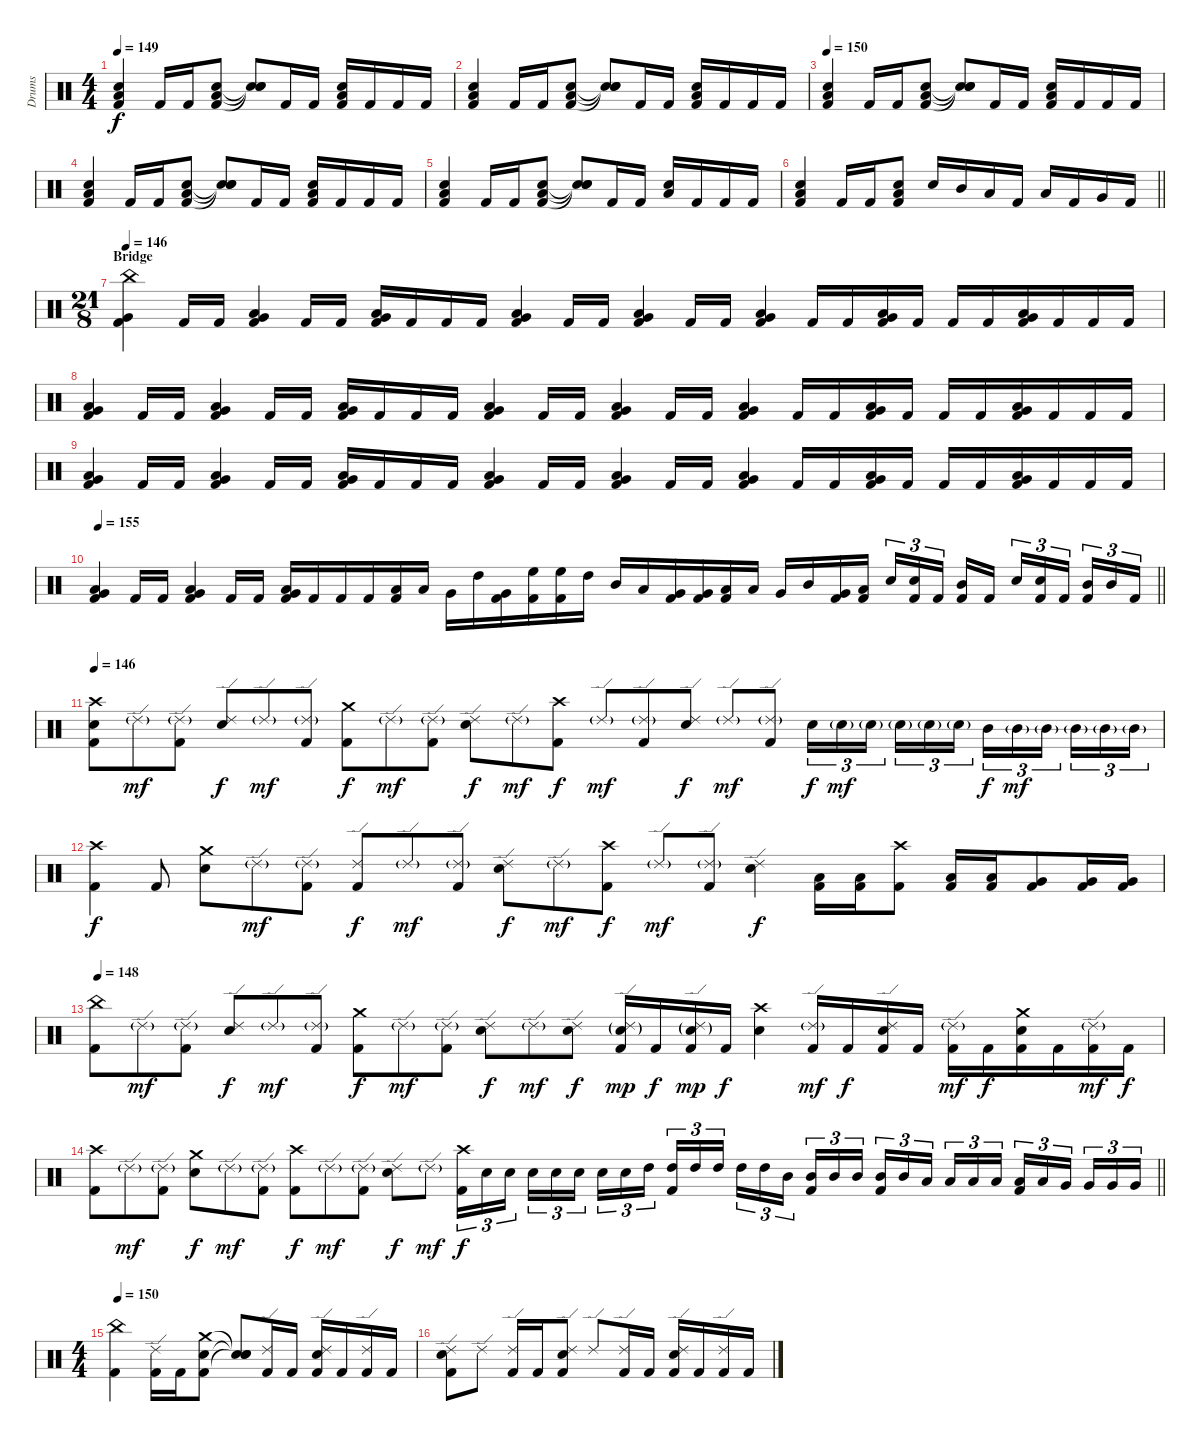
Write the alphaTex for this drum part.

\track ("Drums" "Drums") {instrument percussion}
\staff {score}
\articulation defaults
\ts (4 4)
\tempo 149
\clef neutral
\ks c
("Snare (hit) 2" "Low Tom (hit)" "Kick (hit) 2").4{dy f} "Kick (hit) 2".16 "Kick (hit) 2".16 ("Snare (hit) 2" "Low Tom (hit)" "Kick (hit) 2").8 ("Snare (hit)"{t} "Snare (hit)"{t} "Snare (hit)"{t}).8 "Kick (hit) 2".16 "Kick (hit) 2".16 ("Snare (hit) 2" "Low Tom (hit)" "Kick (hit) 2").16 "Kick (hit) 2".16 "Kick (hit) 2".16 "Kick (hit) 2".16 |
("Snare (hit) 2" "Low Tom (hit)" "Kick (hit) 2").4 "Kick (hit) 2".16 "Kick (hit) 2".16 ("Snare (hit) 2" "Low Tom (hit)" "Kick (hit) 2").8 ("Snare (hit)"{t} "Snare (hit)"{t} "Snare (hit)"{t}).8 "Kick (hit) 2".16 "Kick (hit) 2".16 ("Snare (hit) 2" "Low Tom (hit)" "Kick (hit) 2").16 "Kick (hit) 2".16 "Kick (hit) 2".16 "Kick (hit) 2".16 |
\tempo 150
("Snare (hit) 2" "Low Tom (hit)" "Kick (hit) 2").4 "Kick (hit) 2".16 "Kick (hit) 2".16 ("Snare (hit) 2" "Low Tom (hit)" "Kick (hit) 2").8 ("Snare (hit)"{t} "Snare (hit)"{t} "Snare (hit)"{t}).8 "Kick (hit) 2".16 "Kick (hit) 2".16 ("Snare (hit) 2" "Low Tom (hit)" "Kick (hit) 2").16 "Kick (hit) 2".16 "Kick (hit) 2".16 "Kick (hit) 2".16 |
("Snare (hit) 2" "Low Tom (hit)" "Kick (hit) 2").4 "Kick (hit) 2".16 "Kick (hit) 2".16 ("Snare (hit) 2" "Low Tom (hit)" "Kick (hit) 2").8 ("Snare (hit)"{t} "Snare (hit)"{t} "Snare (hit)"{t}).8 "Kick (hit) 2".16 "Kick (hit) 2".16 ("Snare (hit) 2" "Low Tom (hit)" "Kick (hit) 2").16 "Kick (hit) 2".16 "Kick (hit) 2".16 "Kick (hit) 2".16 |
("Snare (hit) 2" "Low Tom (hit)" "Kick (hit) 2").4 "Kick (hit) 2".16 "Kick (hit) 2".16 ("Snare (hit) 2" "Low Tom (hit)" "Kick (hit) 2").8 ("Snare (hit)"{t} "Snare (hit)"{t} "Snare (hit)"{t}).8 "Kick (hit) 2".16 "Kick (hit) 2".16 ("Snare (hit) 2" "Low Tom (hit)").16 "Kick (hit) 2".16 "Kick (hit) 2".16 "Kick (hit) 2".16 |
\barLineRight lightlight
("Snare (hit) 2" "Low Tom (hit)" "Kick (hit) 2").4 "Kick (hit) 2".16 "Kick (hit) 2".16 ("Snare (hit) 2" "Low Tom (hit)" "Kick (hit) 2").8 "Snare (hit) 2".16 "Mid Tom (hit)".16 "Low Tom (hit)".16 "Kick (hit) 2".16 "Low Tom (hit)".16 "Kick (hit) 2".16 "Very Low Tom (hit)".16 "Kick (hit) 2".16 |
\ts (21 8)
\section ("" "Bridge")
\tempo 146
("China (hit)" "Very Low Tom (hit)" "Kick (hit) 2").4 "Kick (hit) 2".16 "Kick (hit) 2".16 ("Low Tom (hit)" "Very Low Tom (hit)" "Kick (hit) 2").4 "Kick (hit) 2".16 "Kick (hit) 2".16 ("Low Tom (hit)" "Very Low Tom (hit)" "Kick (hit) 2").16 "Kick (hit) 2".16 "Kick (hit) 2".16 "Kick (hit) 2".16 ("Low Tom (hit)" "Very Low Tom (hit)" "Kick (hit) 2").4 "Kick (hit) 2".16 "Kick (hit) 2".16 ("Low Tom (hit)" "Very Low Tom (hit)" "Kick (hit) 2").4 "Kick (hit) 2".16 "Kick (hit) 2".16 ("Low Tom (hit)" "Very Low Tom (hit)" "Kick (hit) 2").4 "Kick (hit) 2".16 "Kick (hit) 2".16 ("Low Tom (hit)" "Very Low Tom (hit)" "Kick (hit) 2").16 "Kick (hit) 2".16 "Kick (hit) 2".16 "Kick (hit) 2".16 ("Low Tom (hit)" "Very Low Tom (hit)" "Kick (hit) 2").16 "Kick (hit) 2".16 "Kick (hit) 2".16 "Kick (hit) 2".16 |
("Low Tom (hit)" "Very Low Tom (hit)" "Kick (hit) 2").4 "Kick (hit) 2".16 "Kick (hit) 2".16 ("Low Tom (hit)" "Very Low Tom (hit)" "Kick (hit) 2").4 "Kick (hit) 2".16 "Kick (hit) 2".16 ("Low Tom (hit)" "Very Low Tom (hit)" "Kick (hit) 2").16 "Kick (hit) 2".16 "Kick (hit) 2".16 "Kick (hit) 2".16 ("Low Tom (hit)" "Very Low Tom (hit)" "Kick (hit) 2").4 "Kick (hit) 2".16 "Kick (hit) 2".16 ("Low Tom (hit)" "Very Low Tom (hit)" "Kick (hit) 2").4 "Kick (hit) 2".16 "Kick (hit) 2".16 ("Low Tom (hit)" "Very Low Tom (hit)" "Kick (hit) 2").4 "Kick (hit) 2".16 "Kick (hit) 2".16 ("Low Tom (hit)" "Very Low Tom (hit)" "Kick (hit) 2").16 "Kick (hit) 2".16 "Kick (hit) 2".16 "Kick (hit) 2".16 ("Low Tom (hit)" "Very Low Tom (hit)" "Kick (hit) 2").16 "Kick (hit) 2".16 "Kick (hit) 2".16 "Kick (hit) 2".16 |
("Low Tom (hit)" "Very Low Tom (hit)" "Kick (hit) 2").4 "Kick (hit) 2".16 "Kick (hit) 2".16 ("Low Tom (hit)" "Very Low Tom (hit)" "Kick (hit) 2").4 "Kick (hit) 2".16 "Kick (hit) 2".16 ("Low Tom (hit)" "Very Low Tom (hit)" "Kick (hit) 2").16 "Kick (hit) 2".16 "Kick (hit) 2".16 "Kick (hit) 2".16 ("Low Tom (hit)" "Very Low Tom (hit)" "Kick (hit) 2").4 "Kick (hit) 2".16 "Kick (hit) 2".16 ("Low Tom (hit)" "Very Low Tom (hit)" "Kick (hit) 2").4 "Kick (hit) 2".16 "Kick (hit) 2".16 ("Low Tom (hit)" "Very Low Tom (hit)" "Kick (hit) 2").4 "Kick (hit) 2".16 "Kick (hit) 2".16 ("Low Tom (hit)" "Very Low Tom (hit)" "Kick (hit) 2").16 "Kick (hit) 2".16 "Kick (hit) 2".16 "Kick (hit) 2".16 ("Low Tom (hit)" "Very Low Tom (hit)" "Kick (hit) 2").16 "Kick (hit) 2".16 "Kick (hit) 2".16 "Kick (hit) 2".16 |
\tempo 155
\barLineRight lightlight
("Low Tom (hit)" "Very Low Tom (hit)" "Kick (hit) 2").4 "Kick (hit) 2".16 "Kick (hit) 2".16 ("Low Tom (hit)" "Very Low Tom (hit)" "Kick (hit) 2").4 "Kick (hit) 2".16 "Kick (hit) 2".16 ("Low Tom (hit)" "Very Low Tom (hit)" "Kick (hit) 2").16 "Kick (hit) 2".16 "Kick (hit) 2".16 "Kick (hit) 2".16 ("Low Tom (hit)" "Kick (hit) 2").16 "Low Tom (hit)".16 "Very Low Tom (hit)".16 "High Tom (hit)".16 ("Very Low Tom (hit)" "Kick (hit) 2").16 ("High Floor Tom (hit)" "Kick (hit) 2").16 ("High Floor Tom (hit)" "Kick (hit) 2").16 "High Tom (hit)".16 "Mid Tom (hit)".16 "Low Tom (hit)".16 ("Very Low Tom (hit)" "Kick (hit) 2").16 ("Very Low Tom (hit)" "Kick (hit) 2").16 ("Low Floor Tom (hit)" "Kick (hit) 2").16 "Low Floor Tom (hit)".16 "Very Low Tom (hit)".16 "Mid Tom (hit)".16 ("Very Low Tom (hit)" "Kick (hit) 2").16 ("Low Tom (hit)" "Kick (hit) 2").16{beam splitsecondary} "Snare (hit) 2".16{tu (3 2)} ("Snare (hit) 2" "Kick (hit) 2").16{tu (3 2)} "Kick (hit) 2".16{tu (3 2)} ("Mid Tom (hit)" "Kick (hit) 2").16 "Kick (hit) 2".16{beam splitsecondary} "Snare (hit) 2".16{tu (3 2)} ("Snare (hit) 2" "Kick (hit) 2").16{tu (3 2)} "Kick (hit) 2".16{tu (3 2) beam splitsecondary} ("Mid Tom (hit)" "Kick (hit) 2").16{tu (3 2)} "Mid Tom (hit)".16{tu (3 2)} "Kick (hit) 2".16{tu (3 2)} |
\section ("" "")
\tempo 146
("Crash high (hit)" "Snare (hit) 2" "Kick (hit) 2").8 "Ride (edge) 2"{g}.8{dy mf} ("Ride (edge) 2"{g} "Kick (hit) 2").8 ("Ride (edge) 2" "Snare (hit) 2").8{dy f} "Ride (edge) 2"{g}.8{dy mf} ("Ride (edge) 2"{g} "Kick (hit) 2").8 ("Crash medium (hit)" "Kick (hit) 2").8{dy f} "Ride (edge) 2"{g}.8{dy mf} ("Ride (edge) 2"{g} "Kick (hit) 2").8 ("Ride (edge) 2" "Snare (hit) 2").8{dy f} "Ride (edge) 2"{g}.8{dy mf} ("Crash high (hit)" "Kick (hit) 2").8{dy f} "Ride (edge) 2"{g}.8{dy mf} ("Ride (edge) 2"{g} "Kick (hit) 2").8 ("Ride (edge) 2" "Snare (hit) 2").8{dy f} "Ride (edge) 2"{g}.8{dy mf} ("Ride (edge) 2"{g} "Kick (hit) 2").8 "Snare (hit) 2".16{tu (3 2) dy f} "Snare (hit) 2"{g}.16{tu (3 2) dy mf} "Snare (hit) 2"{g}.16{tu (3 2)} "Snare (hit) 2"{g}.16{tu (3 2)} "Snare (hit) 2"{g}.16{tu (3 2)} "Snare (hit) 2"{g}.16{tu (3 2) beam splitsecondary} "Mid Tom (hit)".16{tu (3 2) dy f} "Mid Tom (hit)"{g}.16{tu (3 2) dy mf} "Mid Tom (hit)"{g}.16{tu (3 2) beam splitsecondary} "Mid Tom (hit)"{g}.16{tu (3 2)} "Mid Tom (hit)"{g}.16{tu (3 2)} "Mid Tom (hit)"{g}.16{tu (3 2)} |
("Crash high (hit)" "Kick (hit) 2").4{dy f} "Kick (hit) 2".8 ("Crash medium (hit)" "Snare (hit) 2").8 "Ride (edge) 2"{g}.8{dy mf} ("Ride (edge) 2"{g} "Kick (hit) 2").8 ("Ride (edge) 2" "Kick (hit) 2").8{dy f} "Ride (edge) 2"{g}.8{dy mf} ("Ride (edge) 2"{g} "Kick (hit) 2").8 ("Ride (edge) 2" "Snare (hit) 2").8{dy f} "Ride (edge) 2"{g}.8{dy mf} ("Crash high (hit)" "Kick (hit) 2").8{dy f} "Ride (edge) 2"{g}.8{dy mf} ("Ride (edge) 2"{g} "Kick (hit) 2").8 ("Ride (edge) 2" "Snare (hit) 2").4{dy f} ("Low Tom (hit)" "Kick (hit) 2").16 ("Low Tom (hit)" "Kick (hit) 2").16 ("Crash high (hit)" "Kick (hit) 2").8 ("Low Tom (hit)" "Kick (hit) 2").16 ("Low Tom (hit)" "Kick (hit) 2").16 ("Very Low Tom (hit)" "Kick (hit) 2").8 ("Very Low Tom (hit)" "Kick (hit) 2").16 ("Very Low Tom (hit)" "Kick (hit) 2").16 |
\tempo 148
("China (hit)" "Kick (hit) 2").8 "Ride (edge) 2"{g}.8{dy mf} ("Ride (edge) 2"{g} "Kick (hit) 2").8 ("Ride (edge) 2" "Snare (hit) 2").8{dy f} "Ride (edge) 2"{g}.8{dy mf} ("Ride (edge) 2"{g} "Kick (hit) 2").8 ("Crash medium (hit)" "Kick (hit) 2").8{dy f} "Ride (edge) 2"{g}.8{dy mf} ("Ride (edge) 2"{g} "Kick (hit) 2").8 ("Ride (edge) 2" "Snare (hit) 2").8{dy f} "Ride (edge) 2"{g}.8{dy mf} ("Ride (edge) 2" "Snare (hit) 2").8{dy f} ("Ride (edge) 2"{g} "Snare (hit) 2"{g} "Kick (hit) 2").16{dy mp} "Kick (hit) 2".16{dy f} ("Ride (edge) 2"{g} "Snare (hit) 2"{g} "Kick (hit) 2").16{dy mp} "Kick (hit) 2".16{dy f} ("Crash high (hit)" "Snare (hit) 2").4 ("Ride (edge) 2"{g} "Kick (hit) 2").16{dy mf} "Kick (hit) 2".16{dy f} ("Ride (edge) 2" "Snare (hit) 2" "Kick (hit) 2").16 "Kick (hit) 2".16 ("Ride (edge) 2"{g} "Kick (hit) 2").16{dy mf} "Kick (hit) 2".16{dy f} ("Crash medium (hit)" "Snare (hit) 2" "Kick (hit) 2").16 "Kick (hit) 2".16 ("Ride (edge) 2"{g} "Kick (hit) 2").16{dy mf} "Kick (hit) 2".16{dy f} |
\barLineRight lightlight
("Crash high (hit)" "Kick (hit) 2").8 "Ride (edge) 2"{g}.8{dy mf} ("Ride (edge) 2"{g} "Kick (hit) 2").8 ("Crash medium (hit)" "Snare (hit) 2").8{dy f} "Ride (edge) 2"{g}.8{dy mf} ("Ride (edge) 2"{g} "Kick (hit) 2").8 ("Crash high (hit)" "Kick (hit) 2").8{dy f} "Ride (edge) 2"{g}.8{dy mf} ("Ride (edge) 2"{g} "Kick (hit) 2").8 ("Ride (edge) 2" "Snare (hit) 2").8{dy f} "Ride (edge) 2"{g}.8{dy mf} ("Crash high (hit)" "Kick (hit) 2").16{tu (3 2) dy f} "Snare (hit) 2".16{tu (3 2)} "Snare (hit) 2".16{tu (3 2)} "Snare (hit) 2".16{tu (3 2)} "Snare (hit) 2".16{tu (3 2)} "Snare (hit) 2".16{tu (3 2) beam splitsecondary} "Snare (hit) 2".16{tu (3 2)} "Snare (hit) 2".16{tu (3 2)} "High Tom (hit)".16{tu (3 2) beam splitsecondary} ("High Tom (hit)" "Kick (hit) 2").16{tu (3 2)} "High Tom (hit)".16{tu (3 2)} "High Tom (hit)".16{tu (3 2)} "High Tom (hit)".16{tu (3 2)} "High Tom (hit)".16{tu (3 2)} "Mid Tom (hit)".16{tu (3 2) beam splitsecondary} ("Mid Tom (hit)" "Kick (hit) 2").16{tu (3 2)} "Mid Tom (hit)".16{tu (3 2)} "Mid Tom (hit)".16{tu (3 2) beam splitsecondary} ("Mid Tom (hit)" "Kick (hit) 2").16{tu (3 2)} "Mid Tom (hit)".16{tu (3 2)} "Low Tom (hit)".16{tu (3 2)} "Low Tom (hit)".16{tu (3 2)} "Low Tom (hit)".16{tu (3 2)} "Low Tom (hit)".16{tu (3 2) beam splitsecondary} ("Low Tom (hit)" "Kick (hit) 2").16{tu (3 2)} "Low Tom (hit)".16{tu (3 2)} "Very Low Tom (hit)".16{tu (3 2) beam splitsecondary} "Very Low Tom (hit)".16{tu (3 2)} "Very Low Tom (hit)".16{tu (3 2)} "Very Low Tom (hit)".16{tu (3 2)} |
\ts (4 4)
\section ("" "")
\tempo 150
("China (hit)" "Kick (hit) 2").4 ("Ride (edge) 2" "Kick (hit) 2").16 "Kick (hit) 2".16 ("Crash medium (hit)" "Snare (hit) 2" "Kick (hit) 2").8 ("Snare (hit)"{t} "Snare (hit)"{t} "Snare (hit)"{t}).8 ("Ride (edge) 2" "Kick (hit) 2").16 "Kick (hit) 2".16 ("Ride (edge) 2" "Snare (hit) 2" "Kick (hit) 2").16 "Kick (hit) 2".16 ("Ride (edge) 2" "Kick (hit) 2").16 "Kick (hit) 2".16 |
("Ride (edge) 2" "Snare (hit) 2" "Kick (hit) 2").8 "Ride (edge) 2".8 ("Ride (edge) 2" "Kick (hit) 2").16 "Kick (hit) 2".16 ("Ride (edge) 2" "Snare (hit) 2" "Kick (hit) 2").8 "Ride (edge) 2".8 ("Ride (edge) 2" "Kick (hit) 2").16 "Kick (hit) 2".16 ("Ride (edge) 2" "Snare (hit) 2" "Kick (hit) 2").16 "Kick (hit) 2".16 ("Ride (edge) 2" "Kick (hit) 2").16 "Kick (hit) 2".16
